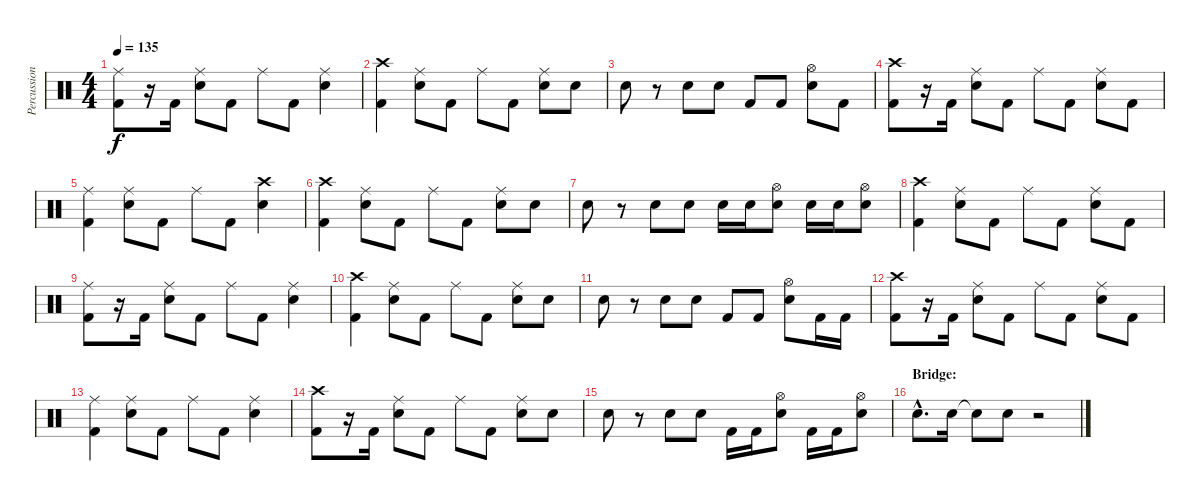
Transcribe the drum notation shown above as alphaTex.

\track ("Percussion" "Percussion") {instrument percussion}
\staff {score}
\articulation defaults
\ts (4 4)
\tempo 135
\clef neutral
\ks c
("Ride (middle)" "Kick (hit) 2").8{dy f} r.16 "Kick (hit) 2".16 ("Ride (middle)" "Electric Snare (hit)").8 "Kick (hit) 2".8 "Ride (middle)".8 "Kick (hit) 2".8 ("Ride (middle)" "Electric Snare (hit)").4 |
("Crash high (hit)" "Kick (hit) 2").4 ("Ride (middle)" "Electric Snare (hit)").8 "Kick (hit) 2".8 "Ride (middle)".8 "Kick (hit) 2".8 ("Ride (middle)" "Electric Snare (hit)").8 "Electric Snare (hit)".8 |
"Electric Snare (hit)".8 r.8 "Electric Snare (hit)".8 "Electric Snare (hit)".8 "Kick (hit) 2".8 "Kick (hit) 2".8 ("Hi-Hat (open)" "Electric Snare (hit)").8 "Kick (hit) 2".8 |
("Crash high (hit)" "Kick (hit) 2").8 r.16 "Kick (hit) 2".16 ("Ride (middle)" "Electric Snare (hit)").8 "Kick (hit) 2".8 "Ride (middle)".8 "Kick (hit) 2".8 ("Ride (middle)" "Electric Snare (hit)").8 "Kick (hit) 2".8 |
("Ride (middle)" "Kick (hit) 2").4 ("Ride (middle)" "Electric Snare (hit)").8 "Kick (hit) 2".8 "Ride (middle)".8 "Kick (hit) 2".8 ("Crash high (hit)" "Electric Snare (hit)").4 |
("Crash high (hit)" "Kick (hit) 2").4 ("Ride (middle)" "Electric Snare (hit)").8 "Kick (hit) 2".8 "Ride (middle)".8 "Kick (hit) 2".8 ("Ride (middle)" "Electric Snare (hit)").8 "Electric Snare (hit)".8 |
"Electric Snare (hit)".8 r.8 "Electric Snare (hit)".8 "Electric Snare (hit)".8 "Electric Snare (hit)".16 "Electric Snare (hit)".16 ("Hi-Hat (open)" "Electric Snare (hit)").8 "Electric Snare (hit)".16 "Electric Snare (hit)".16 ("Hi-Hat (open)" "Electric Snare (hit)").8 |
("Crash high (hit)" "Kick (hit) 2").4 ("Ride (middle)" "Electric Snare (hit)").8 "Kick (hit) 2".8 "Ride (middle)".8 "Kick (hit) 2".8 ("Ride (middle)" "Electric Snare (hit)").8 "Kick (hit) 2".8 |
("Ride (middle)" "Kick (hit) 2").8 r.16 "Kick (hit) 2".16 ("Ride (middle)" "Electric Snare (hit)").8 "Kick (hit) 2".8 "Ride (middle)".8 "Kick (hit) 2".8 ("Ride (middle)" "Electric Snare (hit)").4 |
("Crash high (hit)" "Kick (hit) 2").4 ("Ride (middle)" "Electric Snare (hit)").8 "Kick (hit) 2".8 "Ride (middle)".8 "Kick (hit) 2".8 ("Ride (middle)" "Electric Snare (hit)").8 "Electric Snare (hit)".8 |
"Electric Snare (hit)".8 r.8 "Electric Snare (hit)".8 "Electric Snare (hit)".8 "Kick (hit) 2".8 "Kick (hit) 2".8 ("Hi-Hat (open)" "Electric Snare (hit)").8 "Kick (hit) 2".16 "Kick (hit) 2".16 |
("Crash high (hit)" "Kick (hit) 2").8 r.16 "Kick (hit) 2".16 ("Ride (middle)" "Electric Snare (hit)").8 "Kick (hit) 2".8 "Ride (middle)".8 "Kick (hit) 2".8 ("Ride (middle)" "Electric Snare (hit)").8 "Kick (hit) 2".8 |
("Ride (middle)" "Kick (hit) 2").4 ("Ride (middle)" "Electric Snare (hit)").8 "Kick (hit) 2".8 "Ride (middle)".8 "Kick (hit) 2".8 ("Ride (middle)" "Electric Snare (hit)").4 |
("Crash high (hit)" "Kick (hit) 2").8 r.16 "Kick (hit) 2".16 ("Ride (middle)" "Electric Snare (hit)").8 "Kick (hit) 2".8 "Ride (middle)".8 "Kick (hit) 2".8 ("Ride (middle)" "Electric Snare (hit)").8 "Electric Snare (hit)".8 |
"Electric Snare (hit)".8 r.8 "Electric Snare (hit)".8 "Electric Snare (hit)".8 "Kick (hit) 2".16 "Kick (hit) 2".16 ("Hi-Hat (open)" "Electric Snare (hit)").8 "Kick (hit) 2".16 "Kick (hit) 2".16 ("Hi-Hat (open)" "Electric Snare (hit)").8 |
\section ("" "Bridge:")
"Electric Snare (hit)"{hac}.8{d} "Electric Snare (hit)".16 "Snare (hit)"{t}.8 "Electric Snare (hit)".8 r.2
